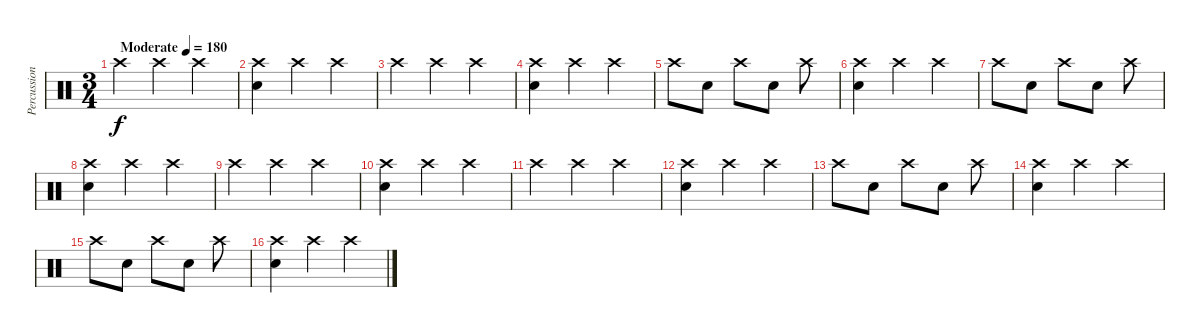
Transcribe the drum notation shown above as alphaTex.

\track ("Percussion" "Percussion") {instrument percussion}
\staff {score}
\articulation defaults
\ts (3 4)
\tempo (180 "Moderate")
\clef neutral
\ks c "Crash high (hit)".4{dy f} "Crash high (hit)".4 "Crash high (hit)".4
|
("Crash high (hit)" "Snare (hit) 2").4 "Crash high (hit)".4 "Crash high (hit)".4 |
"Crash high (hit)".4 "Crash high (hit)".4 "Crash high (hit)".4 |
("Crash high (hit)" "Snare (hit) 2").4 "Crash high (hit)".4 "Crash high (hit)".4 |
"Crash high (hit)".8 "Snare (hit) 2".8 "Crash high (hit)".8 "Snare (hit) 2".8 "Crash high (hit)".8 |
("Crash high (hit)" "Snare (hit) 2").4 "Crash high (hit)".4 "Crash high (hit)".4 |
"Crash high (hit)".8 "Snare (hit) 2".8 "Crash high (hit)".8 "Snare (hit) 2".8 "Crash high (hit)".8 |
("Crash high (hit)" "Snare (hit) 2").4 "Crash high (hit)".4 "Crash high (hit)".4 |
"Crash high (hit)".4 "Crash high (hit)".4 "Crash high (hit)".4 |
("Crash high (hit)" "Snare (hit) 2").4 "Crash high (hit)".4 "Crash high (hit)".4 |
"Crash high (hit)".4 "Crash high (hit)".4 "Crash high (hit)".4 |
("Crash high (hit)" "Snare (hit) 2").4 "Crash high (hit)".4 "Crash high (hit)".4 |
"Crash high (hit)".8 "Snare (hit) 2".8 "Crash high (hit)".8 "Snare (hit) 2".8 "Crash high (hit)".8 |
("Crash high (hit)" "Snare (hit) 2").4 "Crash high (hit)".4 "Crash high (hit)".4 |
"Crash high (hit)".8 "Snare (hit) 2".8 "Crash high (hit)".8 "Snare (hit) 2".8 "Crash high (hit)".8 |
("Crash high (hit)" "Snare (hit) 2").4 "Crash high (hit)".4 "Crash high (hit)".4
